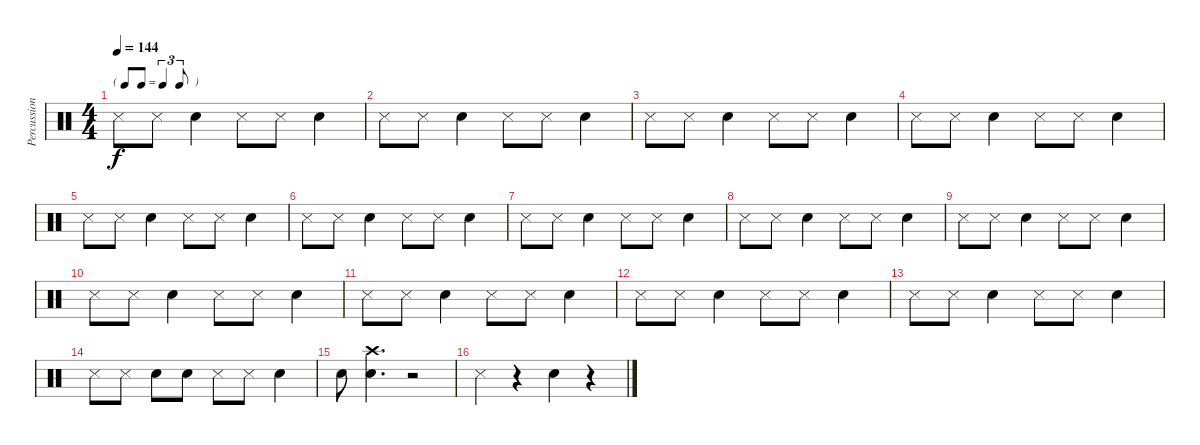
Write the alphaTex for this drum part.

\track ("Percussions" "Percussion") {instrument percussion}
\staff {score}
\articulation defaults
\ts (4 4)
\tf triplet8th
\tempo 144
\clef neutral
\ks c "Snare (side stick) 3".8{dy f} "Snare (side stick) 3".8 "Snare (hit) 2".4 "Snare (side stick) 3".8 "Snare (side stick) 3".8 "Snare (hit) 2".4
|
"Snare (side stick) 3".8 "Snare (side stick) 3".8 "Snare (hit) 2".4 "Snare (side stick) 3".8 "Snare (side stick) 3".8 "Snare (hit) 2".4 |
"Snare (side stick) 3".8 "Snare (side stick) 3".8 "Snare (hit) 2".4 "Snare (side stick) 3".8 "Snare (side stick) 3".8 "Snare (hit) 2".4 |
"Snare (side stick) 3".8 "Snare (side stick) 3".8 "Snare (hit) 2".4 "Snare (side stick) 3".8 "Snare (side stick) 3".8 "Snare (hit) 2".4 |
"Snare (side stick) 3".8 "Snare (side stick) 3".8 "Snare (hit) 2".4 "Snare (side stick) 3".8 "Snare (side stick) 3".8 "Snare (hit) 2".4 |
"Snare (side stick) 3".8 "Snare (side stick) 3".8 "Snare (hit) 2".4 "Snare (side stick) 3".8 "Snare (side stick) 3".8 "Snare (hit) 2".4 |
"Snare (side stick) 3".8 "Snare (side stick) 3".8 "Snare (hit) 2".4 "Snare (side stick) 3".8 "Snare (side stick) 3".8 "Snare (hit) 2".4 |
"Snare (side stick) 3".8 "Snare (side stick) 3".8 "Snare (hit) 2".4 "Snare (side stick) 3".8 "Snare (side stick) 3".8 "Snare (hit) 2".4 |
"Snare (side stick) 3".8 "Snare (side stick) 3".8 "Snare (hit) 2".4 "Snare (side stick) 3".8 "Snare (side stick) 3".8 "Snare (hit) 2".4 |
"Snare (side stick) 3".8 "Snare (side stick) 3".8 "Snare (hit) 2".4 "Snare (side stick) 3".8 "Snare (side stick) 3".8 "Snare (hit) 2".4 |
"Snare (side stick) 3".8 "Snare (side stick) 3".8 "Snare (hit) 2".4 "Snare (side stick) 3".8 "Snare (side stick) 3".8 "Snare (hit) 2".4 |
"Snare (side stick) 3".8 "Snare (side stick) 3".8 "Snare (hit) 2".4 "Snare (side stick) 3".8 "Snare (side stick) 3".8 "Snare (hit) 2".4 |
"Snare (side stick) 3".8 "Snare (side stick) 3".8 "Snare (hit) 2".4 "Snare (side stick) 3".8 "Snare (side stick) 3".8 "Snare (hit) 2".4 |
"Snare (side stick) 3".8 "Snare (side stick) 3".8 "Snare (hit) 2".8 "Snare (hit) 2".8 "Snare (side stick) 3".8 "Snare (side stick) 3".8 "Snare (hit) 2".4 |
"Snare (hit) 2".8 ("Snare (hit) 2" "Crash high (hit)").4{d} r.2 |
"Snare (side stick) 3".4 r.4 "Snare (hit) 2".4 r.4
